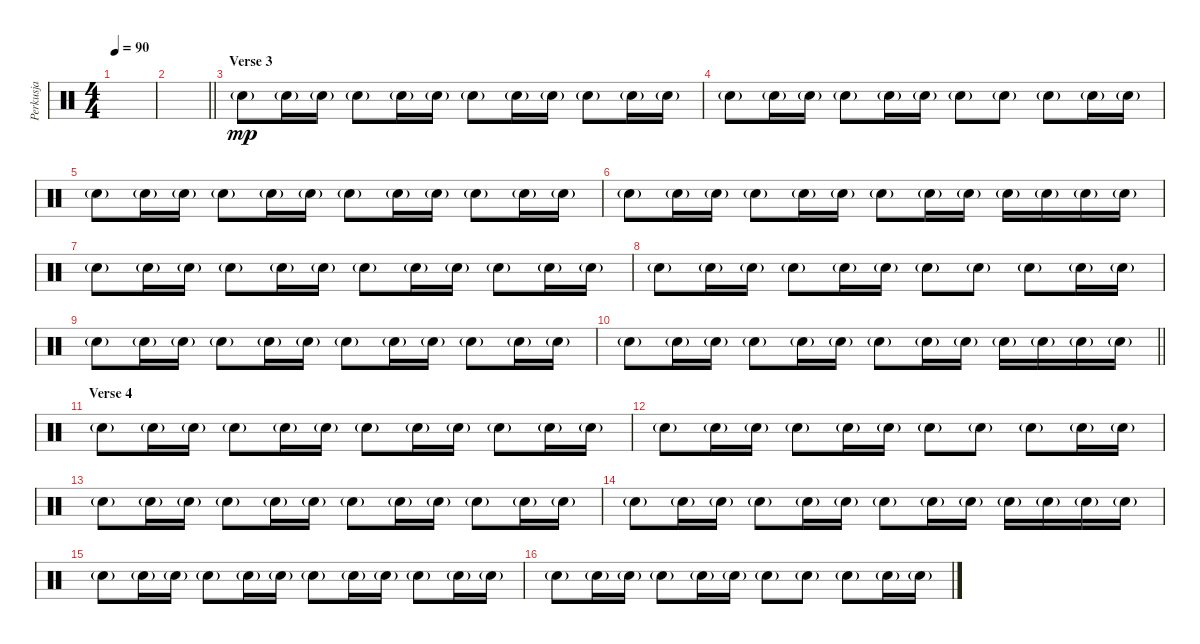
\track ("Perkusja" "Perkusja") {instrument percussion}
\staff {score}
\articulation defaults
\ts (4 4)
\tempo 90
\clef neutral
\ks c
|
\barLineRight lightlight
|
\section ("" "Verse 3")
"Electric Snare (hit)"{g}.8{dy mp} "Electric Snare (hit)"{g}.16 "Electric Snare (hit)"{g}.16 "Electric Snare (hit)"{g}.8 "Electric Snare (hit)"{g}.16 "Electric Snare (hit)"{g}.16 "Electric Snare (hit)"{g}.8 "Electric Snare (hit)"{g}.16 "Electric Snare (hit)"{g}.16 "Electric Snare (hit)"{g}.8 "Electric Snare (hit)"{g}.16 "Electric Snare (hit)"{g}.16 |
"Electric Snare (hit)"{g}.8 "Electric Snare (hit)"{g}.16 "Electric Snare (hit)"{g}.16 "Electric Snare (hit)"{g}.8 "Electric Snare (hit)"{g}.16 "Electric Snare (hit)"{g}.16 "Electric Snare (hit)"{g}.8 "Electric Snare (hit)"{g}.8 "Electric Snare (hit)"{g}.8 "Electric Snare (hit)"{g}.16 "Electric Snare (hit)"{g}.16 |
"Electric Snare (hit)"{g}.8 "Electric Snare (hit)"{g}.16 "Electric Snare (hit)"{g}.16 "Electric Snare (hit)"{g}.8 "Electric Snare (hit)"{g}.16 "Electric Snare (hit)"{g}.16 "Electric Snare (hit)"{g}.8 "Electric Snare (hit)"{g}.16 "Electric Snare (hit)"{g}.16 "Electric Snare (hit)"{g}.8 "Electric Snare (hit)"{g}.16 "Electric Snare (hit)"{g}.16 |
"Electric Snare (hit)"{g}.8 "Electric Snare (hit)"{g}.16 "Electric Snare (hit)"{g}.16 "Electric Snare (hit)"{g}.8 "Electric Snare (hit)"{g}.16 "Electric Snare (hit)"{g}.16 "Electric Snare (hit)"{g}.8 "Electric Snare (hit)"{g}.16 "Electric Snare (hit)"{g}.16 "Electric Snare (hit)"{g}.16 "Electric Snare (hit)"{g}.16 "Electric Snare (hit)"{g}.16 "Electric Snare (hit)"{g}.16 |
"Electric Snare (hit)"{g}.8 "Electric Snare (hit)"{g}.16 "Electric Snare (hit)"{g}.16 "Electric Snare (hit)"{g}.8 "Electric Snare (hit)"{g}.16 "Electric Snare (hit)"{g}.16 "Electric Snare (hit)"{g}.8 "Electric Snare (hit)"{g}.16 "Electric Snare (hit)"{g}.16 "Electric Snare (hit)"{g}.8 "Electric Snare (hit)"{g}.16 "Electric Snare (hit)"{g}.16 |
"Electric Snare (hit)"{g}.8 "Electric Snare (hit)"{g}.16 "Electric Snare (hit)"{g}.16 "Electric Snare (hit)"{g}.8 "Electric Snare (hit)"{g}.16 "Electric Snare (hit)"{g}.16 "Electric Snare (hit)"{g}.8 "Electric Snare (hit)"{g}.8 "Electric Snare (hit)"{g}.8 "Electric Snare (hit)"{g}.16 "Electric Snare (hit)"{g}.16 |
"Electric Snare (hit)"{g}.8 "Electric Snare (hit)"{g}.16 "Electric Snare (hit)"{g}.16 "Electric Snare (hit)"{g}.8 "Electric Snare (hit)"{g}.16 "Electric Snare (hit)"{g}.16 "Electric Snare (hit)"{g}.8 "Electric Snare (hit)"{g}.16 "Electric Snare (hit)"{g}.16 "Electric Snare (hit)"{g}.8 "Electric Snare (hit)"{g}.16 "Electric Snare (hit)"{g}.16 |
\barLineRight lightlight "Electric Snare (hit)"{g}.8 "Electric Snare (hit)"{g}.16 "Electric Snare (hit)"{g}.16 "Electric Snare (hit)"{g}.8 "Electric Snare (hit)"{g}.16 "Electric Snare (hit)"{g}.16 "Electric Snare (hit)"{g}.8 "Electric Snare (hit)"{g}.16 "Electric Snare (hit)"{g}.16 "Electric Snare (hit)"{g}.16 "Electric Snare (hit)"{g}.16 "Electric Snare (hit)"{g}.16 "Electric Snare (hit)"{g}.16
|
\section ("" "Verse 4")
"Electric Snare (hit)"{g}.8 "Electric Snare (hit)"{g}.16 "Electric Snare (hit)"{g}.16 "Electric Snare (hit)"{g}.8 "Electric Snare (hit)"{g}.16 "Electric Snare (hit)"{g}.16 "Electric Snare (hit)"{g}.8 "Electric Snare (hit)"{g}.16 "Electric Snare (hit)"{g}.16 "Electric Snare (hit)"{g}.8 "Electric Snare (hit)"{g}.16 "Electric Snare (hit)"{g}.16 |
"Electric Snare (hit)"{g}.8 "Electric Snare (hit)"{g}.16 "Electric Snare (hit)"{g}.16 "Electric Snare (hit)"{g}.8 "Electric Snare (hit)"{g}.16 "Electric Snare (hit)"{g}.16 "Electric Snare (hit)"{g}.8 "Electric Snare (hit)"{g}.8 "Electric Snare (hit)"{g}.8 "Electric Snare (hit)"{g}.16 "Electric Snare (hit)"{g}.16 |
"Electric Snare (hit)"{g}.8 "Electric Snare (hit)"{g}.16 "Electric Snare (hit)"{g}.16 "Electric Snare (hit)"{g}.8 "Electric Snare (hit)"{g}.16 "Electric Snare (hit)"{g}.16 "Electric Snare (hit)"{g}.8 "Electric Snare (hit)"{g}.16 "Electric Snare (hit)"{g}.16 "Electric Snare (hit)"{g}.8 "Electric Snare (hit)"{g}.16 "Electric Snare (hit)"{g}.16 |
"Electric Snare (hit)"{g}.8 "Electric Snare (hit)"{g}.16 "Electric Snare (hit)"{g}.16 "Electric Snare (hit)"{g}.8 "Electric Snare (hit)"{g}.16 "Electric Snare (hit)"{g}.16 "Electric Snare (hit)"{g}.8 "Electric Snare (hit)"{g}.16 "Electric Snare (hit)"{g}.16 "Electric Snare (hit)"{g}.16 "Electric Snare (hit)"{g}.16 "Electric Snare (hit)"{g}.16 "Electric Snare (hit)"{g}.16 |
"Electric Snare (hit)"{g}.8 "Electric Snare (hit)"{g}.16 "Electric Snare (hit)"{g}.16 "Electric Snare (hit)"{g}.8 "Electric Snare (hit)"{g}.16 "Electric Snare (hit)"{g}.16 "Electric Snare (hit)"{g}.8 "Electric Snare (hit)"{g}.16 "Electric Snare (hit)"{g}.16 "Electric Snare (hit)"{g}.8 "Electric Snare (hit)"{g}.16 "Electric Snare (hit)"{g}.16 |
"Electric Snare (hit)"{g}.8 "Electric Snare (hit)"{g}.16 "Electric Snare (hit)"{g}.16 "Electric Snare (hit)"{g}.8 "Electric Snare (hit)"{g}.16 "Electric Snare (hit)"{g}.16 "Electric Snare (hit)"{g}.8 "Electric Snare (hit)"{g}.8 "Electric Snare (hit)"{g}.8 "Electric Snare (hit)"{g}.16 "Electric Snare (hit)"{g}.16
